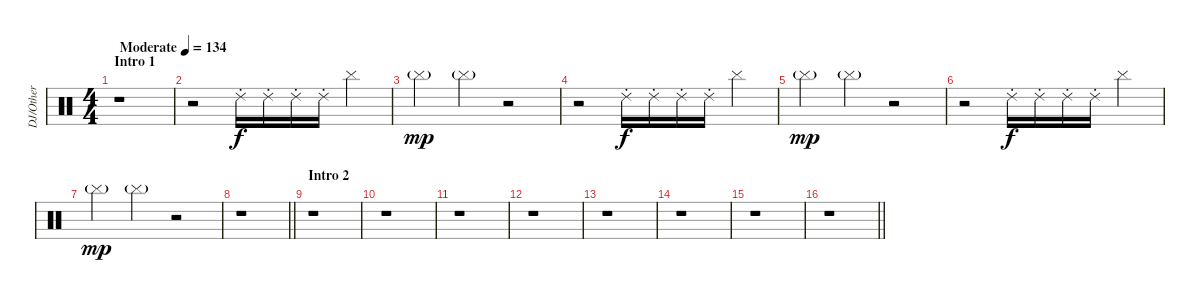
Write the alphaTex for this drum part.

\track ("DJ/Other" "DJ/Other") {instrument percussion}
\staff {score}
\articulation defaults
\ts (4 4)
\section ("" "Intro 1")
\tempo (134 "Moderate")
\clef neutral
\ks c
r.1{dy f} |
r.2 "Ride (choke) 2".16 "Ride (choke) 2".16 "Ride (choke) 2".16 "Ride (choke) 2".16 "Cymbal (hit)".4 |
"Cymbal (hit)"{g}.4{dy mp} "Cymbal (hit)"{g}.4 r.2 |
r.2 "Ride (choke) 2".16{dy f} "Ride (choke) 2".16 "Ride (choke) 2".16 "Ride (choke) 2".16 "Cymbal (hit)".4 |
"Cymbal (hit)"{g}.4{dy mp} "Cymbal (hit)"{g}.4 r.2 |
r.2 "Ride (choke) 2".16{dy f} "Ride (choke) 2".16 "Ride (choke) 2".16 "Ride (choke) 2".16 "Cymbal (hit)".4 |
"Cymbal (hit)"{g}.4{dy mp} "Cymbal (hit)"{g}.4 r.2 |
\barLineRight lightlight
r.1 |
\section ("" "Intro 2")
r.1 |
r.1 |
r.1 |
r.1 |
r.1 |
r.1 |
r.1 |
\barLineRight lightlight
r.1
